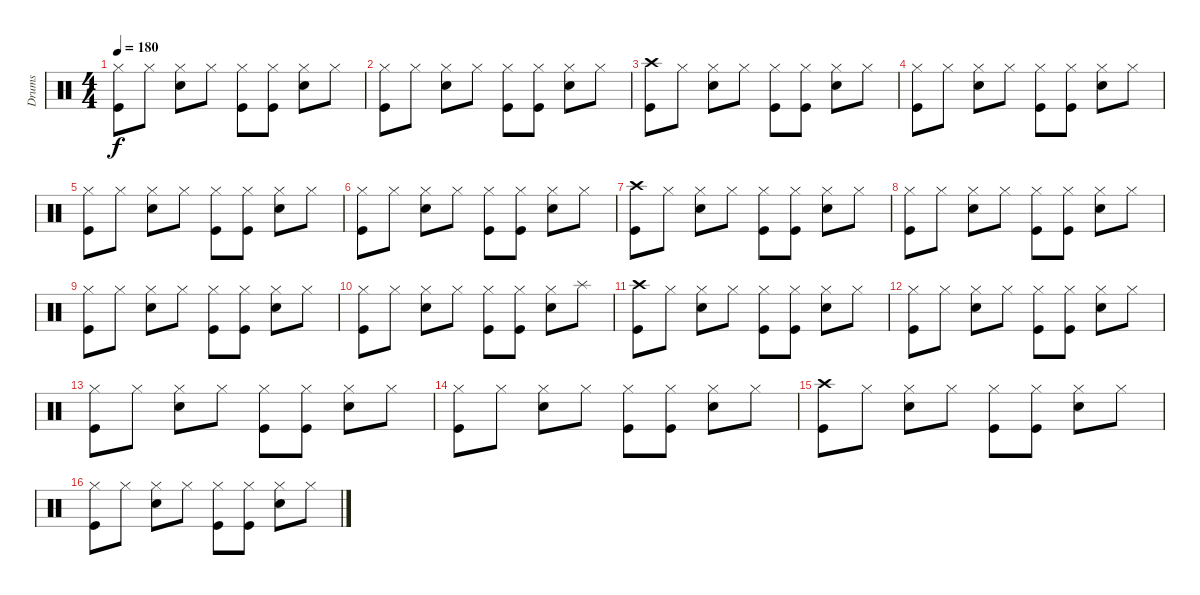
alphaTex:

\track ("Drums" "Drums") {instrument percussion}
\staff {score}
\articulation defaults
\ts (4 4)
\tempo 180
\clef neutral
\ks c
("Hi-Hat (closed)" "Kick (hit)").8{dy f} "Hi-Hat (closed)".8 ("Hi-Hat (closed)" "Snare (hit) 2").8 "Hi-Hat (closed)".8 ("Hi-Hat (closed)" "Kick (hit)").8 ("Hi-Hat (closed)" "Kick (hit)").8 ("Hi-Hat (closed)" "Snare (hit) 2").8 "Hi-Hat (closed)".8 |
("Hi-Hat (closed)" "Kick (hit)").8 "Hi-Hat (closed)".8 ("Hi-Hat (closed)" "Snare (hit) 2").8 "Hi-Hat (closed)".8 ("Hi-Hat (closed)" "Kick (hit)").8 ("Hi-Hat (closed)" "Kick (hit)").8 ("Hi-Hat (closed)" "Snare (hit) 2").8 "Hi-Hat (closed)".8 |
("Crash high (hit)" "Kick (hit)").8 "Hi-Hat (closed)".8 ("Hi-Hat (closed)" "Snare (hit) 2").8 "Hi-Hat (closed)".8 ("Hi-Hat (closed)" "Kick (hit)").8 ("Hi-Hat (closed)" "Kick (hit)").8 ("Hi-Hat (closed)" "Snare (hit) 2").8 "Hi-Hat (closed)".8 |
("Hi-Hat (closed)" "Kick (hit)").8 "Hi-Hat (closed)".8 ("Hi-Hat (closed)" "Snare (hit) 2").8 "Hi-Hat (closed)".8 ("Hi-Hat (closed)" "Kick (hit)").8 ("Hi-Hat (closed)" "Kick (hit)").8 ("Hi-Hat (closed)" "Snare (hit) 2").8 "Hi-Hat (closed)".8 |
("Hi-Hat (closed)" "Kick (hit)").8 "Hi-Hat (closed)".8 ("Hi-Hat (closed)" "Snare (hit) 2").8 "Hi-Hat (closed)".8 ("Hi-Hat (closed)" "Kick (hit)").8 ("Hi-Hat (closed)" "Kick (hit)").8 ("Hi-Hat (closed)" "Snare (hit) 2").8 "Hi-Hat (closed)".8 |
("Hi-Hat (closed)" "Kick (hit)").8 "Hi-Hat (closed)".8 ("Hi-Hat (closed)" "Snare (hit) 2").8 "Hi-Hat (closed)".8 ("Hi-Hat (closed)" "Kick (hit)").8 ("Hi-Hat (closed)" "Kick (hit)").8 ("Hi-Hat (closed)" "Snare (hit) 2").8 "Hi-Hat (closed)".8 |
("Crash high (hit)" "Kick (hit)").8 "Hi-Hat (closed)".8 ("Hi-Hat (closed)" "Snare (hit) 2").8 "Hi-Hat (closed)".8 ("Hi-Hat (closed)" "Kick (hit)").8 ("Hi-Hat (closed)" "Kick (hit)").8 ("Hi-Hat (closed)" "Snare (hit) 2").8 "Hi-Hat (closed)".8 |
("Hi-Hat (closed)" "Kick (hit)").8 "Hi-Hat (closed)".8 ("Hi-Hat (closed)" "Snare (hit) 2").8 "Hi-Hat (closed)".8 ("Hi-Hat (closed)" "Kick (hit)").8 ("Hi-Hat (closed)" "Kick (hit)").8 ("Hi-Hat (closed)" "Snare (hit) 2").8 "Hi-Hat (closed)".8 |
("Hi-Hat (closed)" "Kick (hit)").8 "Hi-Hat (closed)".8 ("Hi-Hat (closed)" "Snare (hit) 2").8 "Hi-Hat (closed)".8 ("Hi-Hat (closed)" "Kick (hit)").8 ("Hi-Hat (closed)" "Kick (hit)").8 ("Hi-Hat (closed)" "Snare (hit) 2").8 "Hi-Hat (closed)".8 |
("Hi-Hat (closed)" "Kick (hit)").8 "Hi-Hat (closed)".8 ("Hi-Hat (closed)" "Snare (hit) 2").8 "Hi-Hat (closed)".8 ("Hi-Hat (closed)" "Kick (hit)").8 ("Hi-Hat (closed)" "Kick (hit)").8 ("Hi-Hat (closed)" "Snare (hit) 2").8 "Splash (hit)".8 |
("Crash high (hit)" "Kick (hit)").8 "Hi-Hat (closed)".8 ("Hi-Hat (closed)" "Snare (hit) 2").8 "Hi-Hat (closed)".8 ("Hi-Hat (closed)" "Kick (hit)").8 ("Hi-Hat (closed)" "Kick (hit)").8 ("Hi-Hat (closed)" "Snare (hit) 2").8 "Hi-Hat (closed)".8 |
("Hi-Hat (closed)" "Kick (hit)").8 "Hi-Hat (closed)".8 ("Hi-Hat (closed)" "Snare (hit) 2").8 "Hi-Hat (closed)".8 ("Hi-Hat (closed)" "Kick (hit)").8 ("Hi-Hat (closed)" "Kick (hit)").8 ("Hi-Hat (closed)" "Snare (hit) 2").8 "Hi-Hat (closed)".8 |
("Hi-Hat (closed)" "Kick (hit)").8 "Hi-Hat (closed)".8 ("Hi-Hat (closed)" "Snare (hit) 2").8 "Hi-Hat (closed)".8 ("Hi-Hat (closed)" "Kick (hit)").8 ("Hi-Hat (closed)" "Kick (hit)").8 ("Hi-Hat (closed)" "Snare (hit) 2").8 "Hi-Hat (closed)".8 |
("Hi-Hat (closed)" "Kick (hit)").8 "Hi-Hat (closed)".8 ("Hi-Hat (closed)" "Snare (hit) 2").8 "Hi-Hat (closed)".8 ("Hi-Hat (closed)" "Kick (hit)").8 ("Hi-Hat (closed)" "Kick (hit)").8 ("Hi-Hat (closed)" "Snare (hit) 2").8 "Hi-Hat (closed)".8 |
("Crash high (hit)" "Kick (hit)").8 "Hi-Hat (closed)".8 ("Hi-Hat (closed)" "Snare (hit) 2").8 "Hi-Hat (closed)".8 ("Hi-Hat (closed)" "Kick (hit)").8 ("Hi-Hat (closed)" "Kick (hit)").8 ("Hi-Hat (closed)" "Snare (hit) 2").8 "Hi-Hat (closed)".8 |
("Hi-Hat (closed)" "Kick (hit)").8 "Hi-Hat (closed)".8 ("Hi-Hat (closed)" "Snare (hit) 2").8 "Hi-Hat (closed)".8 ("Hi-Hat (closed)" "Kick (hit)").8 ("Hi-Hat (closed)" "Kick (hit)").8 ("Hi-Hat (closed)" "Snare (hit) 2").8 "Hi-Hat (closed)".8
